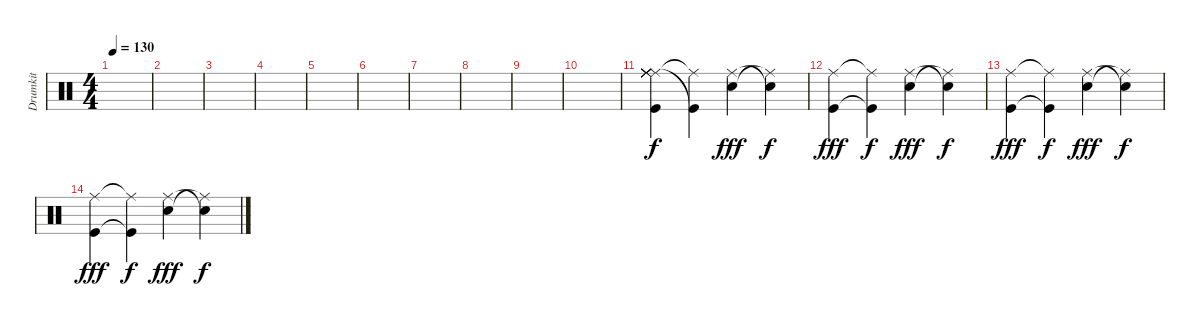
\track ("Drumkit" "Drumkit") {instrument percussion}
\staff {score}
\articulation defaults
\ts (4 4)
\tempo 130
\clef neutral
\ks c
|
|
|
|
|
|
|
|
|
|
("Ride (middle)" "Ride (middle)" "Ride (middle)" "Ride (middle)" "Ride (middle)" "Kick (hit)").4 ("Ride (middle)"{t} "Kick (hit)"{t}).4{dy f} ("Ride (middle)" "Snare (hit) 2").4{dy fff} ("Snare (hit)"{t} "Ride (middle)"{t}).4{dy f} |
("Ride (middle)" "Kick (hit)").4{dy fff} ("Ride (middle)"{t} "Kick (hit)"{t}).4{dy f} ("Ride (middle)" "Snare (hit) 2").4{dy fff} ("Snare (hit)"{t} "Ride (middle)"{t}).4{dy f} |
("Ride (middle)" "Kick (hit)").4{dy fff} ("Ride (middle)"{t} "Kick (hit)"{t}).4{dy f} ("Ride (middle)" "Snare (hit) 2").4{dy fff} ("Snare (hit)"{t} "Ride (middle)"{t}).4{dy f} |
("Ride (middle)" "Kick (hit)").4{dy fff} ("Ride (middle)"{t} "Kick (hit)"{t}).4{dy f} ("Ride (middle)" "Snare (hit) 2").4{dy fff} ("Snare (hit)"{t} "Ride (middle)"{t}).4{dy f}
